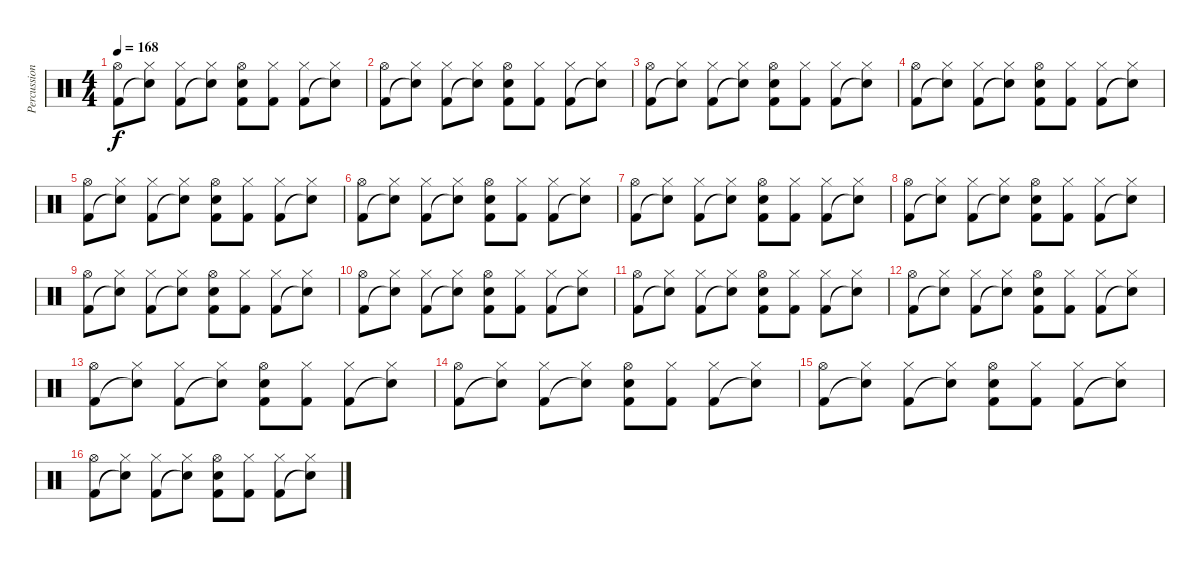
\track ("Percussion" "Percussion") {instrument percussion}
\staff {score}
\articulation defaults
\ts (4 4)
\tempo 168
\clef neutral
\ks c
("Hi-Hat (open)" "Kick (hit) 2").8{dy f} ("Hi-Hat (closed)" "Snare (hit)"{t}).8 ("Hi-Hat (closed)" "Kick (hit) 2").8 ("Hi-Hat (closed)" "Snare (hit)"{t}).8 ("Hi-Hat (open)" "Electric Snare (hit)" "Kick (hit) 2").8 ("Hi-Hat (closed)" "Kick (hit) 2").8 ("Hi-Hat (closed)" "Kick (hit) 2").8 ("Hi-Hat (closed)" "Snare (hit)"{t}).8 |
("Hi-Hat (open)" "Kick (hit) 2").8 ("Hi-Hat (closed)" "Snare (hit)"{t}).8 ("Hi-Hat (closed)" "Kick (hit) 2").8 ("Hi-Hat (closed)" "Snare (hit)"{t}).8 ("Hi-Hat (open)" "Electric Snare (hit)" "Kick (hit) 2").8 ("Hi-Hat (closed)" "Kick (hit) 2").8 ("Hi-Hat (closed)" "Kick (hit) 2").8 ("Hi-Hat (closed)" "Snare (hit)"{t}).8 |
("Hi-Hat (open)" "Kick (hit) 2").8 ("Hi-Hat (closed)" "Snare (hit)"{t}).8 ("Hi-Hat (closed)" "Kick (hit) 2").8 ("Hi-Hat (closed)" "Snare (hit)"{t}).8 ("Hi-Hat (open)" "Electric Snare (hit)" "Kick (hit) 2").8 ("Hi-Hat (closed)" "Kick (hit) 2").8 ("Hi-Hat (closed)" "Kick (hit) 2").8 ("Hi-Hat (closed)" "Snare (hit)"{t}).8 |
("Hi-Hat (open)" "Kick (hit) 2").8 ("Hi-Hat (closed)" "Snare (hit)"{t}).8 ("Hi-Hat (closed)" "Kick (hit) 2").8 ("Hi-Hat (closed)" "Snare (hit)"{t}).8 ("Hi-Hat (open)" "Electric Snare (hit)" "Kick (hit) 2").8 ("Hi-Hat (closed)" "Kick (hit) 2").8 ("Hi-Hat (closed)" "Kick (hit) 2").8 ("Hi-Hat (closed)" "Snare (hit)"{t}).8 |
("Hi-Hat (open)" "Kick (hit) 2").8 ("Hi-Hat (closed)" "Snare (hit)"{t}).8 ("Hi-Hat (closed)" "Kick (hit) 2").8 ("Hi-Hat (closed)" "Snare (hit)"{t}).8 ("Hi-Hat (open)" "Electric Snare (hit)" "Kick (hit) 2").8 ("Hi-Hat (closed)" "Kick (hit) 2").8 ("Hi-Hat (closed)" "Kick (hit) 2").8 ("Hi-Hat (closed)" "Snare (hit)"{t}).8 |
("Hi-Hat (open)" "Kick (hit) 2").8 ("Hi-Hat (closed)" "Snare (hit)"{t}).8 ("Hi-Hat (closed)" "Kick (hit) 2").8 ("Hi-Hat (closed)" "Snare (hit)"{t}).8 ("Hi-Hat (open)" "Electric Snare (hit)" "Kick (hit) 2").8 ("Hi-Hat (closed)" "Kick (hit) 2").8 ("Hi-Hat (closed)" "Kick (hit) 2").8 ("Hi-Hat (closed)" "Snare (hit)"{t}).8 |
("Hi-Hat (open)" "Kick (hit) 2").8 ("Hi-Hat (closed)" "Snare (hit)"{t}).8 ("Hi-Hat (closed)" "Kick (hit) 2").8 ("Hi-Hat (closed)" "Snare (hit)"{t}).8 ("Hi-Hat (open)" "Electric Snare (hit)" "Kick (hit) 2").8 ("Hi-Hat (closed)" "Kick (hit) 2").8 ("Hi-Hat (closed)" "Kick (hit) 2").8 ("Hi-Hat (closed)" "Snare (hit)"{t}).8 |
("Hi-Hat (open)" "Kick (hit) 2").8 ("Hi-Hat (closed)" "Snare (hit)"{t}).8 ("Hi-Hat (closed)" "Kick (hit) 2").8 ("Hi-Hat (closed)" "Snare (hit)"{t}).8 ("Hi-Hat (open)" "Electric Snare (hit)" "Kick (hit) 2").8 ("Hi-Hat (closed)" "Kick (hit) 2").8 ("Hi-Hat (closed)" "Kick (hit) 2").8 ("Hi-Hat (closed)" "Snare (hit)"{t}).8 |
("Hi-Hat (open)" "Kick (hit) 2").8 ("Hi-Hat (closed)" "Snare (hit)"{t}).8 ("Hi-Hat (closed)" "Kick (hit) 2").8 ("Hi-Hat (closed)" "Snare (hit)"{t}).8 ("Hi-Hat (open)" "Electric Snare (hit)" "Kick (hit) 2").8 ("Hi-Hat (closed)" "Kick (hit) 2").8 ("Hi-Hat (closed)" "Kick (hit) 2").8 ("Hi-Hat (closed)" "Snare (hit)"{t}).8 |
("Hi-Hat (open)" "Kick (hit) 2").8 ("Hi-Hat (closed)" "Snare (hit)"{t}).8 ("Hi-Hat (closed)" "Kick (hit) 2").8 ("Hi-Hat (closed)" "Snare (hit)"{t}).8 ("Hi-Hat (open)" "Electric Snare (hit)" "Kick (hit) 2").8 ("Hi-Hat (closed)" "Kick (hit) 2").8 ("Hi-Hat (closed)" "Kick (hit) 2").8 ("Hi-Hat (closed)" "Snare (hit)"{t}).8 |
("Hi-Hat (open)" "Kick (hit) 2").8 ("Hi-Hat (closed)" "Snare (hit)"{t}).8 ("Hi-Hat (closed)" "Kick (hit) 2").8 ("Hi-Hat (closed)" "Snare (hit)"{t}).8 ("Hi-Hat (open)" "Electric Snare (hit)" "Kick (hit) 2").8 ("Hi-Hat (closed)" "Kick (hit) 2").8 ("Hi-Hat (closed)" "Kick (hit) 2").8 ("Hi-Hat (closed)" "Snare (hit)"{t}).8 |
("Hi-Hat (open)" "Kick (hit) 2").8 ("Hi-Hat (closed)" "Snare (hit)"{t}).8 ("Hi-Hat (closed)" "Kick (hit) 2").8 ("Hi-Hat (closed)" "Snare (hit)"{t}).8 ("Hi-Hat (open)" "Electric Snare (hit)" "Kick (hit) 2").8 ("Hi-Hat (closed)" "Kick (hit) 2").8 ("Hi-Hat (closed)" "Kick (hit) 2").8 ("Hi-Hat (closed)" "Snare (hit)"{t}).8 |
("Hi-Hat (open)" "Kick (hit) 2").8 ("Hi-Hat (closed)" "Snare (hit)"{t}).8 ("Hi-Hat (closed)" "Kick (hit) 2").8 ("Hi-Hat (closed)" "Snare (hit)"{t}).8 ("Hi-Hat (open)" "Electric Snare (hit)" "Kick (hit) 2").8 ("Hi-Hat (closed)" "Kick (hit) 2").8 ("Hi-Hat (closed)" "Kick (hit) 2").8 ("Hi-Hat (closed)" "Snare (hit)"{t}).8 |
("Hi-Hat (open)" "Kick (hit) 2").8 ("Hi-Hat (closed)" "Snare (hit)"{t}).8 ("Hi-Hat (closed)" "Kick (hit) 2").8 ("Hi-Hat (closed)" "Snare (hit)"{t}).8 ("Hi-Hat (open)" "Electric Snare (hit)" "Kick (hit) 2").8 ("Hi-Hat (closed)" "Kick (hit) 2").8 ("Hi-Hat (closed)" "Kick (hit) 2").8 ("Hi-Hat (closed)" "Snare (hit)"{t}).8 |
("Hi-Hat (open)" "Kick (hit) 2").8 ("Hi-Hat (closed)" "Snare (hit)"{t}).8 ("Hi-Hat (closed)" "Kick (hit) 2").8 ("Hi-Hat (closed)" "Snare (hit)"{t}).8 ("Hi-Hat (open)" "Electric Snare (hit)" "Kick (hit) 2").8 ("Hi-Hat (closed)" "Kick (hit) 2").8 ("Hi-Hat (closed)" "Kick (hit) 2").8 ("Hi-Hat (closed)" "Snare (hit)"{t}).8 |
("Hi-Hat (open)" "Kick (hit) 2").8 ("Hi-Hat (closed)" "Snare (hit)"{t}).8 ("Hi-Hat (closed)" "Kick (hit) 2").8 ("Hi-Hat (closed)" "Snare (hit)"{t}).8 ("Hi-Hat (open)" "Electric Snare (hit)" "Kick (hit) 2").8 ("Hi-Hat (closed)" "Kick (hit) 2").8 ("Hi-Hat (closed)" "Kick (hit) 2").8 ("Hi-Hat (closed)" "Snare (hit)"{t}).8
